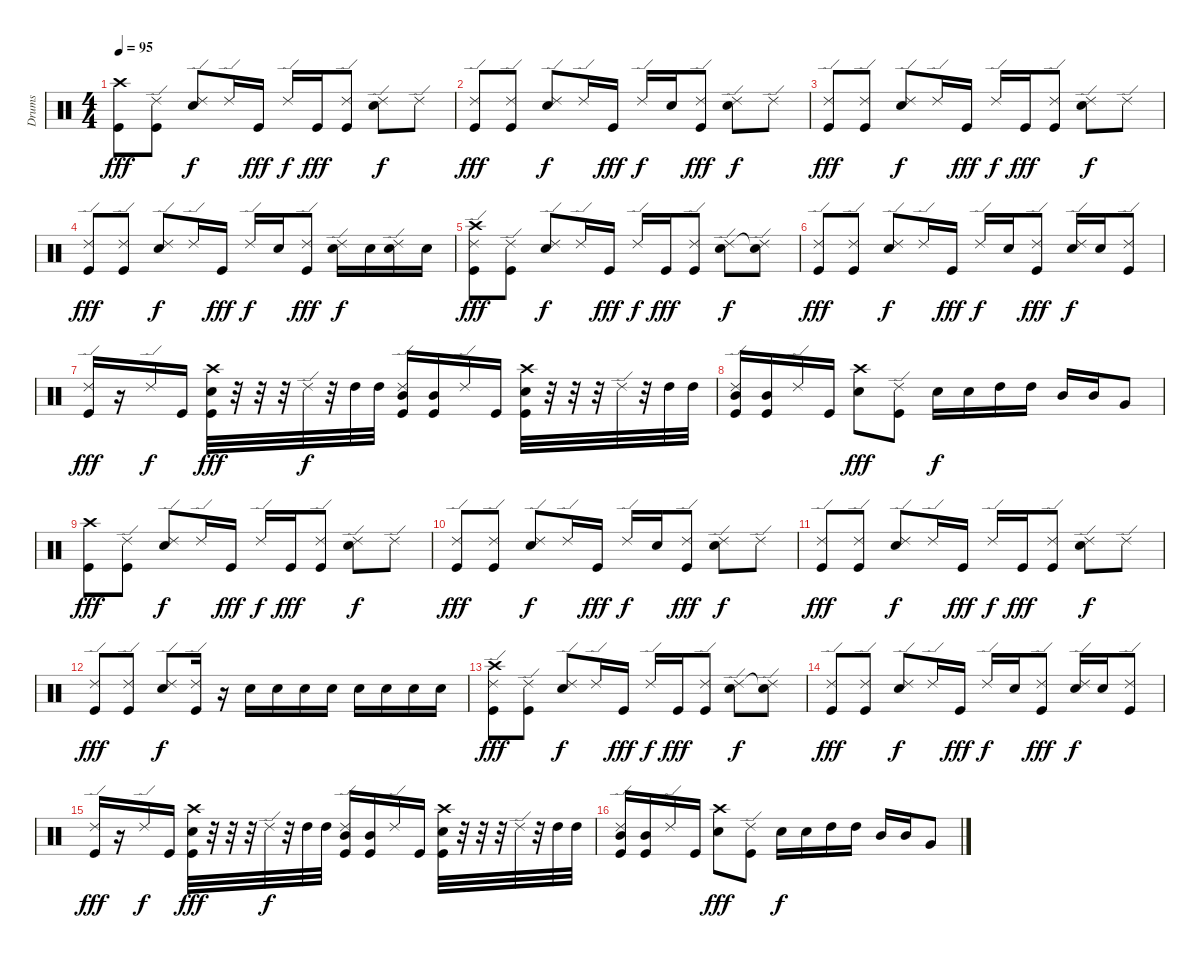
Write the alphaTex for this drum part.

\track ("Drums" "Drums") {instrument percussion}
\staff {score}
\articulation defaults
\ts (4 4)
\tempo 95
\clef neutral
\ks c
("Crash high (hit)" "Kick (hit)").8{dy fff} ("Ride (edge) 2" "Kick (hit)").8 ("Ride (edge) 2" "Electric Snare (hit)").8{dy f} "Ride (edge) 2".16 "Kick (hit)".16{dy fff} "Ride (edge) 2".16{dy f} "Kick (hit)".16{dy fff} ("Ride (edge) 2" "Kick (hit)").8 ("Ride (edge) 2" "Electric Snare (hit)").8{dy f} "Ride (edge) 2".8 |
("Ride (edge) 2" "Kick (hit)").8{dy fff} ("Ride (edge) 2" "Kick (hit)").8 ("Ride (edge) 2" "Electric Snare (hit)").8{dy f} "Ride (edge) 2".16 "Kick (hit)".16{dy fff} "Ride (edge) 2".16{dy f} "Electric Snare (hit)".16 ("Ride (edge) 2" "Kick (hit)").8{dy fff} ("Ride (edge) 2" "Electric Snare (hit)").8{dy f} "Ride (edge) 2".8 |
("Ride (edge) 2" "Kick (hit)").8{dy fff} ("Ride (edge) 2" "Kick (hit)").8 ("Ride (edge) 2" "Electric Snare (hit)").8{dy f} "Ride (edge) 2".16 "Kick (hit)".16{dy fff} "Ride (edge) 2".16{dy f} "Kick (hit)".16{dy fff} ("Ride (edge) 2" "Kick (hit)").8 ("Ride (edge) 2" "Electric Snare (hit)").8{dy f} "Ride (edge) 2".8 |
("Ride (edge) 2" "Kick (hit)").8{dy fff} ("Ride (edge) 2" "Kick (hit)").8 ("Ride (edge) 2" "Electric Snare (hit)").8{dy f} "Ride (edge) 2".16 "Kick (hit)".16{dy fff} "Ride (edge) 2".16{dy f} "Electric Snare (hit)".16 ("Ride (edge) 2" "Kick (hit)").8{dy fff} ("Ride (edge) 2" "Electric Snare (hit)").16{dy f} "Electric Snare (hit)".16 ("Ride (edge) 2" "Electric Snare (hit)").16 "Electric Snare (hit)".16 |
("Crash high (hit)" "Ride (edge) 2" "Kick (hit)").8{dy fff} ("Ride (edge) 2" "Kick (hit)").8 ("Ride (edge) 2" "Electric Snare (hit)").8{dy f} "Ride (edge) 2".16 "Kick (hit)".16{dy fff} "Ride (edge) 2".16{dy f} "Kick (hit)".16{dy fff} ("Ride (edge) 2" "Kick (hit)").8 ("Ride (edge) 2" "Electric Snare (hit)").8{dy f} ("Snare (hit)"{t} "Ride (edge) 2").8 |
("Ride (edge) 2" "Kick (hit)").8{dy fff} ("Ride (edge) 2" "Kick (hit)").8 ("Ride (edge) 2" "Electric Snare (hit)").8{dy f} "Ride (edge) 2".16 "Kick (hit)".16{dy fff} "Ride (edge) 2".16{dy f} "Electric Snare (hit)".16 ("Ride (edge) 2" "Kick (hit)").8{dy fff} ("Ride (edge) 2" "Electric Snare (hit)").16{dy f} "Electric Snare (hit)".16 ("Ride (edge) 2" "Kick (hit)").8 |
("Ride (edge) 2" "Kick (hit)").16{dy fff} r.16 "Ride (edge) 2".16{dy f} "Kick (hit)".16 ("Crash high (hit)" "Electric Snare (hit)" "Kick (hit)").32{dy fff} r.32 r.32 r.32 "Ride (edge) 2".32{dy f} r.32 "High Tom (hit)".32 "High Tom (hit)".32 ("Ride (edge) 2" "Mid Tom (hit)" "Kick (hit)").16 ("Mid Tom (hit)" "Kick (hit)").16 "Ride (edge) 2".16 "Kick (hit)".16 ("Crash high (hit)" "Electric Snare (hit)" "Kick (hit)").32 r.32 r.32 r.32 "Ride (edge) 2".32 r.32 "High Tom (hit)".32 "High Tom (hit)".32 |
("Ride (edge) 2" "Mid Tom (hit)" "Kick (hit)").16 ("Mid Tom (hit)" "Kick (hit)").16 "Ride (edge) 2".16 "Kick (hit)".16 ("Crash high (hit)" "Electric Snare (hit)").8{dy fff} ("Ride (edge) 2" "Kick (hit)").8 "Electric Snare (hit)".16{dy f} "Electric Snare (hit)".16 "High Tom (hit)".16 "High Tom (hit)".16 "Mid Tom (hit)".16 "Mid Tom (hit)".16 "Very Low Tom (hit)".8 |
("Crash high (hit)" "Kick (hit)").8{dy fff} ("Ride (edge) 2" "Kick (hit)").8 ("Ride (edge) 2" "Electric Snare (hit)").8{dy f} "Ride (edge) 2".16 "Kick (hit)".16{dy fff} "Ride (edge) 2".16{dy f} "Kick (hit)".16{dy fff} ("Ride (edge) 2" "Kick (hit)").8 ("Ride (edge) 2" "Electric Snare (hit)").8{dy f} "Ride (edge) 2".8 |
("Ride (edge) 2" "Kick (hit)").8{dy fff} ("Ride (edge) 2" "Kick (hit)").8 ("Ride (edge) 2" "Electric Snare (hit)").8{dy f} "Ride (edge) 2".16 "Kick (hit)".16{dy fff} "Ride (edge) 2".16{dy f} "Electric Snare (hit)".16 ("Ride (edge) 2" "Kick (hit)").8{dy fff} ("Ride (edge) 2" "Electric Snare (hit)").8{dy f} "Ride (edge) 2".8 |
("Ride (edge) 2" "Kick (hit)").8{dy fff} ("Ride (edge) 2" "Kick (hit)").8 ("Ride (edge) 2" "Electric Snare (hit)").8{dy f} "Ride (edge) 2".16 "Kick (hit)".16{dy fff} "Ride (edge) 2".16{dy f} "Kick (hit)".16{dy fff} ("Ride (edge) 2" "Kick (hit)").8 ("Ride (edge) 2" "Electric Snare (hit)").8{dy f} "Ride (edge) 2".8 |
("Ride (edge) 2" "Kick (hit)").8{dy fff} ("Ride (edge) 2" "Kick (hit)").8 ("Ride (edge) 2" "Electric Snare (hit)").8{dy f} ("Ride (edge) 2" "Kick (hit)").16 r.16 "Electric Snare (hit)".16 "Electric Snare (hit)".16 "Electric Snare (hit)".16 "Electric Snare (hit)".16 "Electric Snare (hit)".16 "Electric Snare (hit)".16 "Electric Snare (hit)".16 "Electric Snare (hit)".16 |
("Crash high (hit)" "Ride (edge) 2" "Kick (hit)").8{dy fff} ("Ride (edge) 2" "Kick (hit)").8 ("Ride (edge) 2" "Electric Snare (hit)").8{dy f} "Ride (edge) 2".16 "Kick (hit)".16{dy fff} "Ride (edge) 2".16{dy f} "Kick (hit)".16{dy fff} ("Ride (edge) 2" "Kick (hit)").8 ("Ride (edge) 2" "Electric Snare (hit)").8{dy f} ("Snare (hit)"{t} "Ride (edge) 2").8 |
("Ride (edge) 2" "Kick (hit)").8{dy fff} ("Ride (edge) 2" "Kick (hit)").8 ("Ride (edge) 2" "Electric Snare (hit)").8{dy f} "Ride (edge) 2".16 "Kick (hit)".16{dy fff} "Ride (edge) 2".16{dy f} "Electric Snare (hit)".16 ("Ride (edge) 2" "Kick (hit)").8{dy fff} ("Ride (edge) 2" "Electric Snare (hit)").16{dy f} "Electric Snare (hit)".16 ("Ride (edge) 2" "Kick (hit)").8 |
("Ride (edge) 2" "Kick (hit)").16{dy fff} r.16 "Ride (edge) 2".16{dy f} "Kick (hit)".16 ("Crash high (hit)" "Electric Snare (hit)" "Kick (hit)").32{dy fff} r.32 r.32 r.32 "Ride (edge) 2".32{dy f} r.32 "High Tom (hit)".32 "High Tom (hit)".32 ("Ride (edge) 2" "Mid Tom (hit)" "Kick (hit)").16 ("Mid Tom (hit)" "Kick (hit)").16 "Ride (edge) 2".16 "Kick (hit)".16 ("Crash high (hit)" "Electric Snare (hit)" "Kick (hit)").32 r.32 r.32 r.32 "Ride (edge) 2".32 r.32 "High Tom (hit)".32 "High Tom (hit)".32 |
("Ride (edge) 2" "Mid Tom (hit)" "Kick (hit)").16 ("Mid Tom (hit)" "Kick (hit)").16 "Ride (edge) 2".16 "Kick (hit)".16 ("Crash high (hit)" "Electric Snare (hit)").8{dy fff} ("Ride (edge) 2" "Kick (hit)").8 "Electric Snare (hit)".16{dy f} "Electric Snare (hit)".16 "High Tom (hit)".16 "High Tom (hit)".16 "Mid Tom (hit)".16 "Mid Tom (hit)".16 "Very Low Tom (hit)".8
